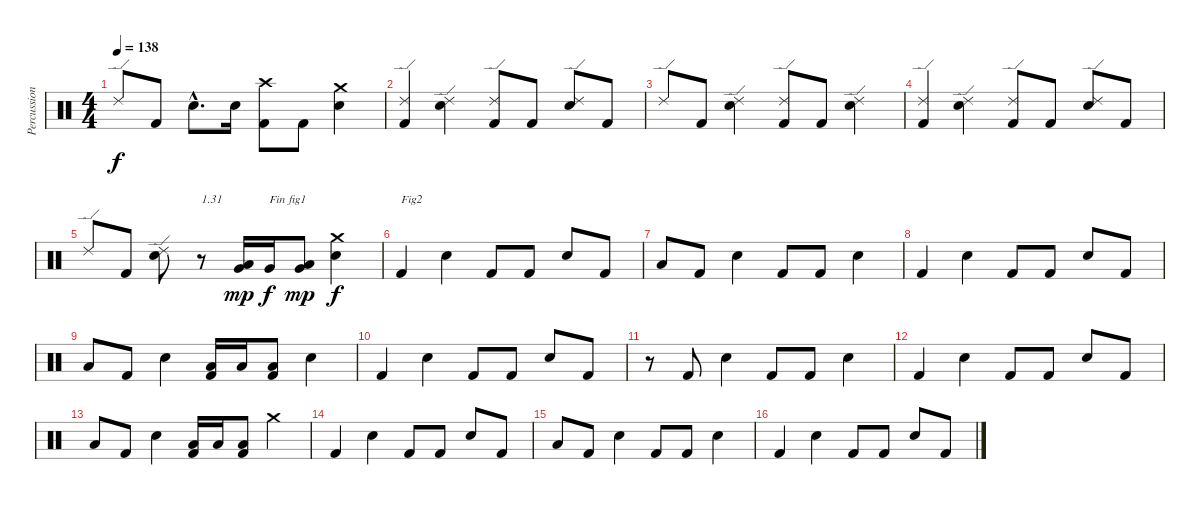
\track ("Percussions" "Percussion") {instrument percussion}
\staff {score}
\articulation defaults
\ts (4 4)
\tempo 138
\clef neutral
\ks c "Ride (edge) 2".8{dy f} "Kick (hit) 2".8 "Electric Snare (hit)"{hac}.8{d} "Electric Snare (hit)".16
("Kick (hit) 2" "Crash high (hit)").8 "Kick (hit) 2".8 ("Electric Snare (hit)" "Crash medium (hit)").4 |
("Kick (hit) 2" "Ride (edge) 2").4 ("Electric Snare (hit)" "Ride (edge) 2").4 ("Kick (hit) 2" "Ride (edge) 2").8 "Kick (hit) 2".8 ("Electric Snare (hit)" "Ride (edge) 2").8 "Kick (hit) 2".8 |
"Ride (edge) 2".8 "Kick (hit) 2".8 ("Electric Snare (hit)" "Ride (edge) 2").4 ("Kick (hit) 2" "Ride (edge) 2").8 "Kick (hit) 2".8 ("Electric Snare (hit)" "Ride (edge) 2").4 |
("Kick (hit) 2" "Ride (edge) 2").4 ("Electric Snare (hit)" "Ride (edge) 2").4 ("Kick (hit) 2" "Ride (edge) 2").8 "Kick (hit) 2".8 ("Electric Snare (hit)" "Ride (edge) 2").8 "Kick (hit) 2".8 |
"Ride (edge) 2".8 "Kick (hit) 2".8 ("Electric Snare (hit)" "Ride (edge) 2").8 r.8{txt "1.31"} ("Very Low Tom (hit)" "Low Floor Tom (hit)").16{dy mp} "Very Low Tom (hit)".16{txt "Fin fig1" dy f} ("Very Low Tom (hit)" "Low Floor Tom (hit)").8{dy mp} ("Electric Snare (hit)" "Crash medium (hit)").4{dy f} |
"Kick (hit) 2".4{txt "Fig2"} "Electric Snare (hit)".4 "Kick (hit) 2".8 "Kick (hit) 2".8 "Electric Snare (hit)".8 "Kick (hit) 2".8 |
"Low Floor Tom (hit)".8 "Kick (hit) 2".8 "Electric Snare (hit)".4 "Kick (hit) 2".8 "Kick (hit) 2".8 "Electric Snare (hit)".4 |
"Kick (hit) 2".4 "Electric Snare (hit)".4 "Kick (hit) 2".8 "Kick (hit) 2".8 "Electric Snare (hit)".8 "Kick (hit) 2".8 |
"Low Floor Tom (hit)".8 "Kick (hit) 2".8 "Electric Snare (hit)".4 ("Kick (hit) 2" "Low Floor Tom (hit)").16 "Low Floor Tom (hit)".16 ("Kick (hit) 2" "Low Floor Tom (hit)").8 "Electric Snare (hit)".4 |
"Kick (hit) 2".4 "Electric Snare (hit)".4 "Kick (hit) 2".8 "Kick (hit) 2".8 "Electric Snare (hit)".8 "Kick (hit) 2".8 |
r.8 "Kick (hit) 2".8 "Electric Snare (hit)".4 "Kick (hit) 2".8 "Kick (hit) 2".8 "Electric Snare (hit)".4 |
"Kick (hit) 2".4 "Electric Snare (hit)".4 "Kick (hit) 2".8 "Kick (hit) 2".8 "Electric Snare (hit)".8 "Kick (hit) 2".8 |
"Low Floor Tom (hit)".8 "Kick (hit) 2".8 "Electric Snare (hit)".4 ("Kick (hit) 2" "Low Floor Tom (hit)").16 "Low Floor Tom (hit)".16 ("Kick (hit) 2" "Low Floor Tom (hit)").8 "Crash medium (hit)".4 |
"Kick (hit) 2".4 "Electric Snare (hit)".4 "Kick (hit) 2".8 "Kick (hit) 2".8 "Electric Snare (hit)".8 "Kick (hit) 2".8 |
"Low Floor Tom (hit)".8 "Kick (hit) 2".8 "Electric Snare (hit)".4 "Kick (hit) 2".8 "Kick (hit) 2".8 "Electric Snare (hit)".4 |
"Kick (hit) 2".4 "Electric Snare (hit)".4 "Kick (hit) 2".8 "Kick (hit) 2".8 "Electric Snare (hit)".8 "Kick (hit) 2".8
